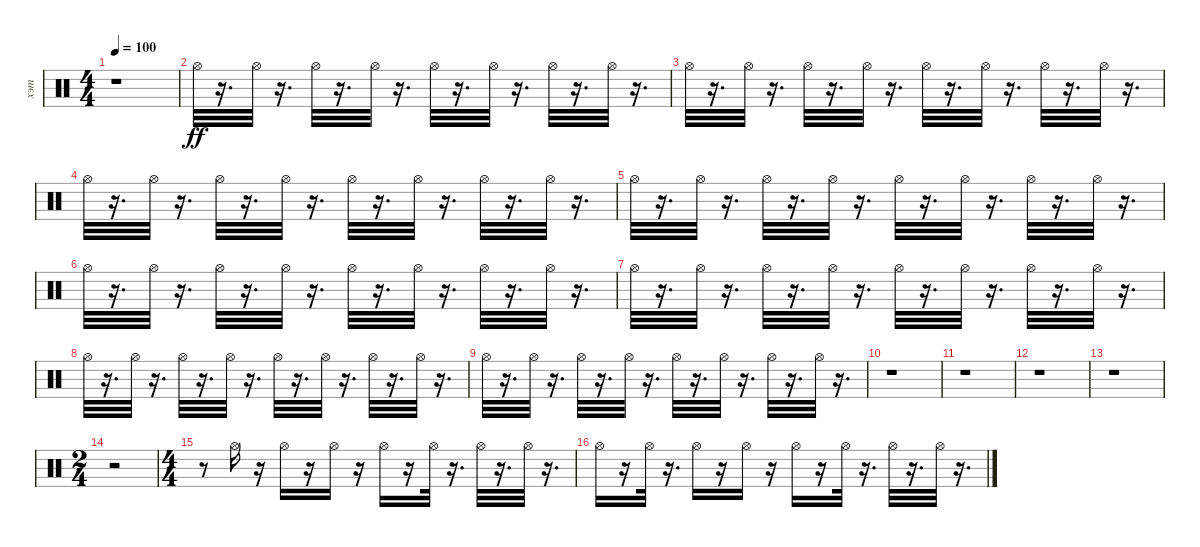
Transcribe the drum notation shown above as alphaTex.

\track ("хэт" "хэт") {instrument percussion}
\staff {score}
\articulation defaults
\ts (4 4)
\tempo 100
\clef neutral
\ks c
r.1{dy ff} |
"Hi-Hat (open)".32 r.16{d} "Hi-Hat (open)".32 r.16{d} "Hi-Hat (open)".32 r.16{d} "Hi-Hat (open)".32 r.16{d} "Hi-Hat (open)".32 r.16{d} "Hi-Hat (open)".32 r.16{d} "Hi-Hat (open)".32 r.16{d} "Hi-Hat (open)".32 r.16{d} |
"Hi-Hat (open)".32 r.16{d} "Hi-Hat (open)".32 r.16{d} "Hi-Hat (open)".32 r.16{d} "Hi-Hat (open)".32 r.16{d} "Hi-Hat (open)".32 r.16{d} "Hi-Hat (open)".32 r.16{d} "Hi-Hat (open)".32 r.16{d} "Hi-Hat (open)".32 r.16{d} |
"Hi-Hat (open)".32 r.16{d} "Hi-Hat (open)".32 r.16{d} "Hi-Hat (open)".32 r.16{d} "Hi-Hat (open)".32 r.16{d} "Hi-Hat (open)".32 r.16{d} "Hi-Hat (open)".32 r.16{d} "Hi-Hat (open)".32 r.16{d} "Hi-Hat (open)".32 r.16{d} |
"Hi-Hat (open)".32 r.16{d} "Hi-Hat (open)".32 r.16{d} "Hi-Hat (open)".32 r.16{d} "Hi-Hat (open)".32 r.16{d} "Hi-Hat (open)".32 r.16{d} "Hi-Hat (open)".32 r.16{d} "Hi-Hat (open)".32 r.16{d} "Hi-Hat (open)".32 r.16{d} |
"Hi-Hat (open)".32 r.16{d} "Hi-Hat (open)".32 r.16{d} "Hi-Hat (open)".32 r.16{d} "Hi-Hat (open)".32 r.16{d} "Hi-Hat (open)".32 r.16{d} "Hi-Hat (open)".32 r.16{d} "Hi-Hat (open)".32 r.16{d} "Hi-Hat (open)".32 r.16{d} |
"Hi-Hat (open)".32 r.16{d} "Hi-Hat (open)".32 r.16{d} "Hi-Hat (open)".32 r.16{d} "Hi-Hat (open)".32 r.16{d} "Hi-Hat (open)".32 r.16{d} "Hi-Hat (open)".32 r.16{d} "Hi-Hat (open)".32 r.16{d} "Hi-Hat (open)".32 r.16{d} |
"Hi-Hat (open)".32 r.16{d} "Hi-Hat (open)".32 r.16{d} "Hi-Hat (open)".32 r.16{d} "Hi-Hat (open)".32 r.16{d} "Hi-Hat (open)".32 r.16{d} "Hi-Hat (open)".32 r.16{d} "Hi-Hat (open)".32 r.16{d} "Hi-Hat (open)".32 r.16{d} |
"Hi-Hat (open)".32 r.16{d} "Hi-Hat (open)".32 r.16{d} "Hi-Hat (open)".32 r.16{d} "Hi-Hat (open)".32 r.16{d} "Hi-Hat (open)".32 r.16{d} "Hi-Hat (open)".32 r.16{d} "Hi-Hat (open)".32 r.16{d} "Hi-Hat (open)".32 r.16{d} |
r.1 |
r.1 |
r.1 |
r.1 |
\ts (2 4)
r.2 |
\ts (4 4)
r.8 "Hi-Hat (open)".16 r.16 "Hi-Hat (open)".16 r.16 "Hi-Hat (open)".16 r.16 "Hi-Hat (open)".16 r.16 "Hi-Hat (open)".32 r.16{d} "Hi-Hat (open)".32 r.16{d} "Hi-Hat (open)".32 r.16{d} |
"Hi-Hat (open)".16 r.16 "Hi-Hat (open)".32 r.16{d} "Hi-Hat (open)".16 r.16 "Hi-Hat (open)".16 r.16 "Hi-Hat (open)".16 r.16 "Hi-Hat (open)".32 r.16{d} "Hi-Hat (open)".32 r.16{d} "Hi-Hat (open)".32 r.16{d}
